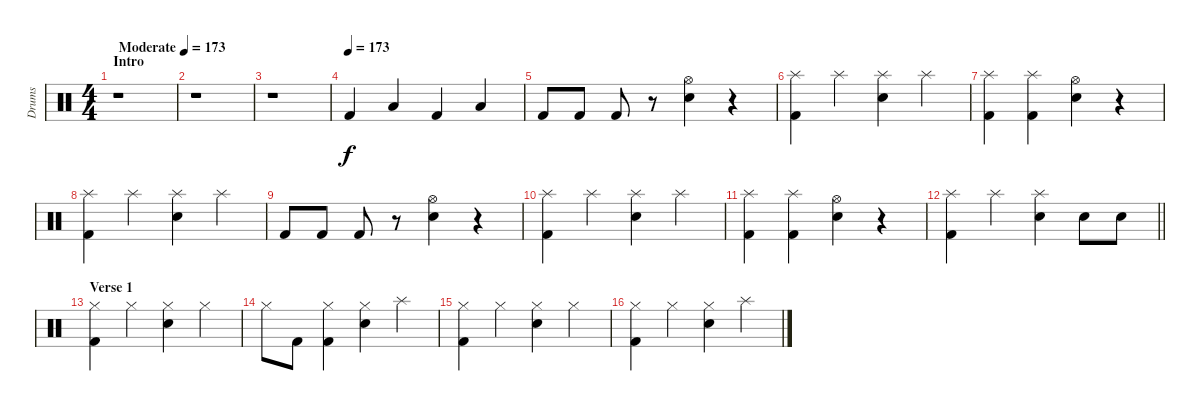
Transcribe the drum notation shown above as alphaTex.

\track ("Drums" "Drums") {instrument percussion}
\staff {score}
\articulation defaults
\ts (4 4)
\section ("" "Intro")
\tempo (173 "Moderate")
\tempo 170
\tempo (173 "Moderate")
\clef neutral
\ks c
r.1{dy f} |
r.1 |
r.1 |
\tempo (173)
"Kick (hit) 2".4 "Low Floor Tom (hit)".4 "Kick (hit) 2".4 "Low Floor Tom (hit)".4 |
"Kick (hit) 2".8 "Kick (hit) 2".8 "Kick (hit) 2".8 r.8 ("Hi-Hat (open)" "Snare (hit) 2").4 r.4 |
("Splash (hit)" "Kick (hit) 2").4 "Splash (hit)".4 ("Splash (hit)" "Snare (hit) 2").4 "Splash (hit)".4 |
("Splash (hit)" "Kick (hit) 2").4 ("Splash (hit)" "Kick (hit) 2").4 ("Hi-Hat (open)" "Snare (hit) 2").4 r.4 |
("Splash (hit)" "Kick (hit) 2").4 "Splash (hit)".4 ("Splash (hit)" "Snare (hit) 2").4 "Splash (hit)".4 |
"Kick (hit) 2".8 "Kick (hit) 2".8 "Kick (hit) 2".8 r.8 ("Hi-Hat (open)" "Snare (hit) 2").4 r.4 |
("Splash (hit)" "Kick (hit) 2").4 "Splash (hit)".4 ("Splash (hit)" "Snare (hit) 2").4 "Splash (hit)".4 |
("Splash (hit)" "Kick (hit) 2").4 ("Splash (hit)" "Kick (hit) 2").4 ("Hi-Hat (open)" "Snare (hit) 2").4 r.4 |
\barLineRight lightlight
("Splash (hit)" "Kick (hit) 2").4 "Splash (hit)".4 ("Splash (hit)" "Snare (hit) 2").4 "Snare (hit) 2".8 "Snare (hit) 2".8 |
\section ("" "Verse 1")
("Hi-Hat (closed)" "Kick (hit) 2").4 "Hi-Hat (closed)".4 ("Hi-Hat (closed)" "Snare (hit) 2").4 "Hi-Hat (closed)".4 |
"Hi-Hat (closed)".8 "Kick (hit) 2".8 ("Hi-Hat (closed)" "Kick (hit) 2").4 ("Hi-Hat (closed)" "Snare (hit) 2").4 "Splash (hit)".4 |
("Hi-Hat (closed)" "Kick (hit) 2").4 "Hi-Hat (closed)".4 ("Hi-Hat (closed)" "Snare (hit) 2").4 "Hi-Hat (closed)".4 |
("Hi-Hat (closed)" "Kick (hit) 2").4 "Hi-Hat (closed)".4 ("Hi-Hat (closed)" "Snare (hit) 2").4 "Splash (hit)".4
